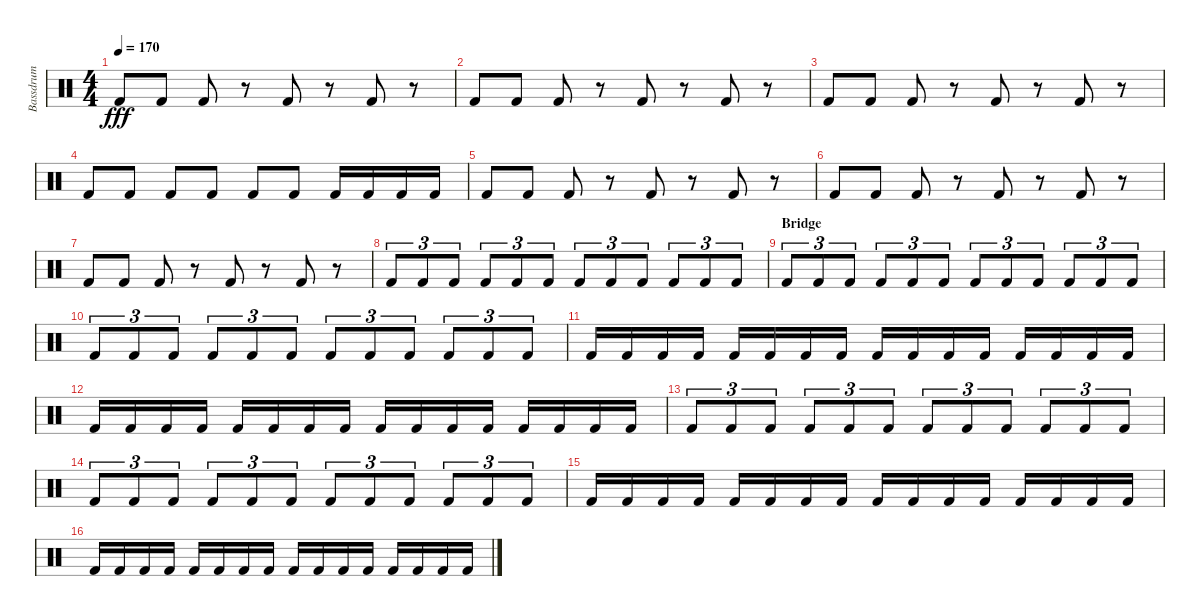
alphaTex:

\track ("Bassdrum" "Bassdrum") {instrument percussion}
\staff {score}
\articulation defaults
\ts (4 4)
\tempo 170
\clef neutral
\ks c "Kick (hit) 2".8{dy fff} "Kick (hit) 2".8 "Kick (hit) 2".8
r.8 "Kick (hit) 2".8 r.8 "Kick (hit) 2".8 r.8 |
"Kick (hit) 2".8 "Kick (hit) 2".8 "Kick (hit) 2".8 r.8 "Kick (hit) 2".8 r.8 "Kick (hit) 2".8 r.8 |
"Kick (hit) 2".8 "Kick (hit) 2".8 "Kick (hit) 2".8 r.8 "Kick (hit) 2".8 r.8 "Kick (hit) 2".8 r.8 |
"Kick (hit) 2".8 "Kick (hit) 2".8 "Kick (hit) 2".8 "Kick (hit) 2".8 "Kick (hit) 2".8 "Kick (hit) 2".8 "Kick (hit) 2".16 "Kick (hit) 2".16 "Kick (hit) 2".16 "Kick (hit) 2".16 |
"Kick (hit) 2".8 "Kick (hit) 2".8 "Kick (hit) 2".8 r.8 "Kick (hit) 2".8 r.8 "Kick (hit) 2".8 r.8 |
"Kick (hit) 2".8 "Kick (hit) 2".8 "Kick (hit) 2".8 r.8 "Kick (hit) 2".8 r.8 "Kick (hit) 2".8 r.8 |
"Kick (hit) 2".8 "Kick (hit) 2".8 "Kick (hit) 2".8 r.8 "Kick (hit) 2".8 r.8 "Kick (hit) 2".8 r.8 |
"Kick (hit) 2".8{tu (3 2)} "Kick (hit) 2".8{tu (3 2)} "Kick (hit) 2".8{tu (3 2)} "Kick (hit) 2".8{tu (3 2)} "Kick (hit) 2".8{tu (3 2)} "Kick (hit) 2".8{tu (3 2)} "Kick (hit) 2".8{tu (3 2)} "Kick (hit) 2".8{tu (3 2)} "Kick (hit) 2".8{tu (3 2)} "Kick (hit) 2".8{tu (3 2)} "Kick (hit) 2".8{tu (3 2)} "Kick (hit) 2".8{tu (3 2)} |
\section ("" "Bridge")
"Kick (hit) 2".8{tu (3 2)} "Kick (hit) 2".8{tu (3 2)} "Kick (hit) 2".8{tu (3 2)} "Kick (hit) 2".8{tu (3 2)} "Kick (hit) 2".8{tu (3 2)} "Kick (hit) 2".8{tu (3 2)} "Kick (hit) 2".8{tu (3 2)} "Kick (hit) 2".8{tu (3 2)} "Kick (hit) 2".8{tu (3 2)} "Kick (hit) 2".8{tu (3 2)} "Kick (hit) 2".8{tu (3 2)} "Kick (hit) 2".8{tu (3 2)} |
"Kick (hit) 2".8{tu (3 2)} "Kick (hit) 2".8{tu (3 2)} "Kick (hit) 2".8{tu (3 2)} "Kick (hit) 2".8{tu (3 2)} "Kick (hit) 2".8{tu (3 2)} "Kick (hit) 2".8{tu (3 2)} "Kick (hit) 2".8{tu (3 2)} "Kick (hit) 2".8{tu (3 2)} "Kick (hit) 2".8{tu (3 2)} "Kick (hit) 2".8{tu (3 2)} "Kick (hit) 2".8{tu (3 2)} "Kick (hit) 2".8{tu (3 2)} |
"Kick (hit) 2".16 "Kick (hit) 2".16 "Kick (hit) 2".16 "Kick (hit) 2".16 "Kick (hit) 2".16 "Kick (hit) 2".16 "Kick (hit) 2".16 "Kick (hit) 2".16 "Kick (hit) 2".16 "Kick (hit) 2".16 "Kick (hit) 2".16 "Kick (hit) 2".16 "Kick (hit) 2".16 "Kick (hit) 2".16 "Kick (hit) 2".16 "Kick (hit) 2".16 |
"Kick (hit) 2".16 "Kick (hit) 2".16 "Kick (hit) 2".16 "Kick (hit) 2".16 "Kick (hit) 2".16 "Kick (hit) 2".16 "Kick (hit) 2".16 "Kick (hit) 2".16 "Kick (hit) 2".16 "Kick (hit) 2".16 "Kick (hit) 2".16 "Kick (hit) 2".16 "Kick (hit) 2".16 "Kick (hit) 2".16 "Kick (hit) 2".16 "Kick (hit) 2".16 |
"Kick (hit) 2".8{tu (3 2)} "Kick (hit) 2".8{tu (3 2)} "Kick (hit) 2".8{tu (3 2)} "Kick (hit) 2".8{tu (3 2)} "Kick (hit) 2".8{tu (3 2)} "Kick (hit) 2".8{tu (3 2)} "Kick (hit) 2".8{tu (3 2)} "Kick (hit) 2".8{tu (3 2)} "Kick (hit) 2".8{tu (3 2)} "Kick (hit) 2".8{tu (3 2)} "Kick (hit) 2".8{tu (3 2)} "Kick (hit) 2".8{tu (3 2)} |
"Kick (hit) 2".8{tu (3 2)} "Kick (hit) 2".8{tu (3 2)} "Kick (hit) 2".8{tu (3 2)} "Kick (hit) 2".8{tu (3 2)} "Kick (hit) 2".8{tu (3 2)} "Kick (hit) 2".8{tu (3 2)} "Kick (hit) 2".8{tu (3 2)} "Kick (hit) 2".8{tu (3 2)} "Kick (hit) 2".8{tu (3 2)} "Kick (hit) 2".8{tu (3 2)} "Kick (hit) 2".8{tu (3 2)} "Kick (hit) 2".8{tu (3 2)} |
"Kick (hit) 2".16 "Kick (hit) 2".16 "Kick (hit) 2".16 "Kick (hit) 2".16 "Kick (hit) 2".16 "Kick (hit) 2".16 "Kick (hit) 2".16 "Kick (hit) 2".16 "Kick (hit) 2".16 "Kick (hit) 2".16 "Kick (hit) 2".16 "Kick (hit) 2".16 "Kick (hit) 2".16 "Kick (hit) 2".16 "Kick (hit) 2".16 "Kick (hit) 2".16 |
"Kick (hit) 2".16 "Kick (hit) 2".16 "Kick (hit) 2".16 "Kick (hit) 2".16 "Kick (hit) 2".16 "Kick (hit) 2".16 "Kick (hit) 2".16 "Kick (hit) 2".16 "Kick (hit) 2".16 "Kick (hit) 2".16 "Kick (hit) 2".16 "Kick (hit) 2".16 "Kick (hit) 2".16 "Kick (hit) 2".16 "Kick (hit) 2".16 "Kick (hit) 2".16
